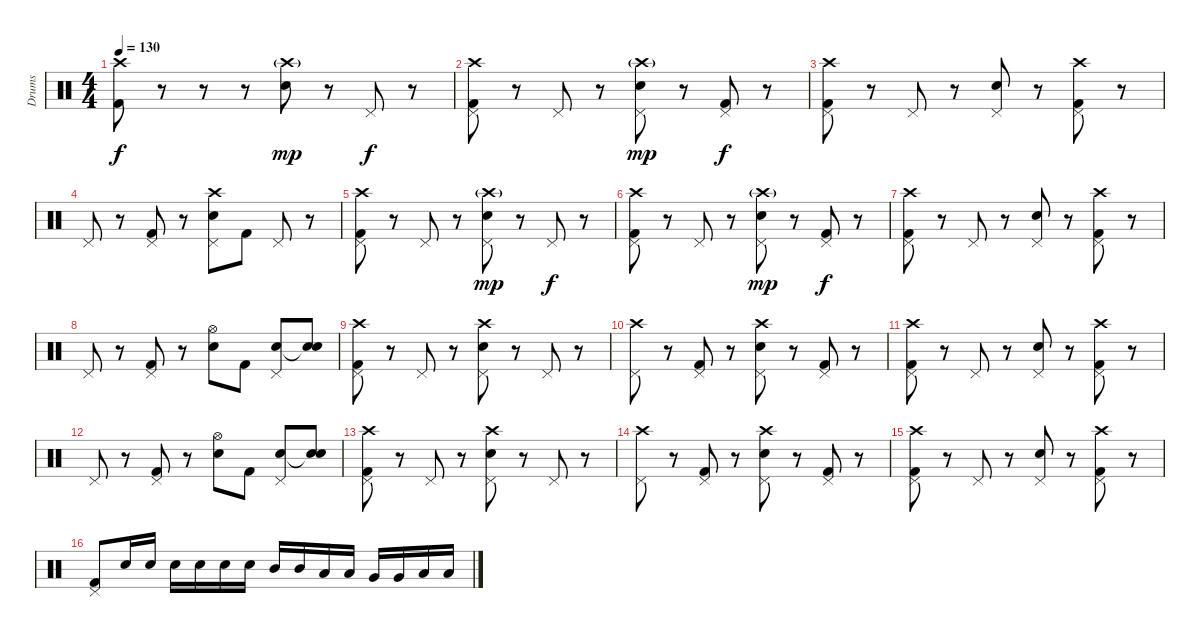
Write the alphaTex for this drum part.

\track ("Drums" "Drums") {instrument percussion}
\staff {score}
\articulation defaults
\ts (4 4)
\tempo 130
\clef neutral
\ks c
("Crash high (hit)" "Kick (hit) 2").8{dy f} r.8 r.8 r.8 ("Crash high (hit)"{g} "Snare (hit) 2").8{dy mp} r.8 "Pedal Hi-Hat (hit)".8{dy f} r.8 |
("Crash high (hit)" "Pedal Hi-Hat (hit)" "Kick (hit) 2").8 r.8 "Pedal Hi-Hat (hit)".8 r.8 ("Crash high (hit)"{g} "Snare (hit) 2" "Pedal Hi-Hat (hit)").8{dy mp} r.8 ("Pedal Hi-Hat (hit)" "Kick (hit) 2").8{dy f} r.8 |
("Crash high (hit)" "Pedal Hi-Hat (hit)" "Kick (hit) 2").8 r.8 "Pedal Hi-Hat (hit)".8 r.8 ("Snare (hit) 2" "Pedal Hi-Hat (hit)").8 r.8 ("Crash high (hit)" "Pedal Hi-Hat (hit)" "Kick (hit) 2").8 r.8 |
"Pedal Hi-Hat (hit)".8 r.8 ("Pedal Hi-Hat (hit)" "Kick (hit) 2").8 r.8 ("Crash high (hit)" "Snare (hit) 2" "Pedal Hi-Hat (hit)").8 "Kick (hit) 2".8 "Pedal Hi-Hat (hit)".8 r.8 |
("Crash high (hit)" "Pedal Hi-Hat (hit)" "Kick (hit) 2").8 r.8 "Pedal Hi-Hat (hit)".8 r.8 ("Crash high (hit)"{g} "Snare (hit) 2" "Pedal Hi-Hat (hit)").8{dy mp} r.8 "Pedal Hi-Hat (hit)".8{dy f} r.8 |
("Crash high (hit)" "Pedal Hi-Hat (hit)" "Kick (hit) 2").8 r.8 "Pedal Hi-Hat (hit)".8 r.8 ("Crash high (hit)"{g} "Snare (hit) 2" "Pedal Hi-Hat (hit)").8{dy mp} r.8 ("Pedal Hi-Hat (hit)" "Kick (hit) 2").8{dy f} r.8 |
("Crash high (hit)" "Pedal Hi-Hat (hit)" "Kick (hit) 2").8 r.8 "Pedal Hi-Hat (hit)".8 r.8 ("Snare (hit) 2" "Pedal Hi-Hat (hit)").8 r.8 ("Crash high (hit)" "Pedal Hi-Hat (hit)" "Kick (hit) 2").8 r.8 |
"Pedal Hi-Hat (hit)".8 r.8 ("Pedal Hi-Hat (hit)" "Kick (hit) 2").8 r.8 ("Hi-Hat (open)" "Snare (hit) 2").8 "Kick (hit) 2".8 ("Snare (hit) 2" "Pedal Hi-Hat (hit)").8 ("Snare (hit)"{t} "Snare (hit) 2").8 |
("Crash high (hit)" "Pedal Hi-Hat (hit)" "Kick (hit) 2").8 r.8 "Pedal Hi-Hat (hit)".8 r.8 ("Crash high (hit)" "Snare (hit) 2" "Pedal Hi-Hat (hit)").8 r.8 "Pedal Hi-Hat (hit)".8 r.8 |
("Crash high (hit)" "Pedal Hi-Hat (hit)").8 r.8 ("Pedal Hi-Hat (hit)" "Kick (hit) 2").8 r.8 ("Crash high (hit)" "Snare (hit) 2" "Pedal Hi-Hat (hit)").8 r.8 ("Pedal Hi-Hat (hit)" "Kick (hit) 2").8 r.8 |
("Crash high (hit)" "Pedal Hi-Hat (hit)" "Kick (hit) 2").8 r.8 "Pedal Hi-Hat (hit)".8 r.8 ("Snare (hit) 2" "Pedal Hi-Hat (hit)").8 r.8 ("Crash high (hit)" "Pedal Hi-Hat (hit)" "Kick (hit) 2").8 r.8 |
"Pedal Hi-Hat (hit)".8 r.8 ("Pedal Hi-Hat (hit)" "Kick (hit) 2").8 r.8 ("Hi-Hat (open)" "Snare (hit) 2").8 "Kick (hit) 2".8 ("Snare (hit) 2" "Pedal Hi-Hat (hit)").8 ("Snare (hit)"{t} "Snare (hit) 2").8 |
("Crash high (hit)" "Pedal Hi-Hat (hit)" "Kick (hit) 2").8 r.8 "Pedal Hi-Hat (hit)".8 r.8 ("Crash high (hit)" "Snare (hit) 2" "Pedal Hi-Hat (hit)").8 r.8 "Pedal Hi-Hat (hit)".8 r.8 |
("Crash high (hit)" "Pedal Hi-Hat (hit)").8 r.8 ("Pedal Hi-Hat (hit)" "Kick (hit) 2").8 r.8 ("Crash high (hit)" "Snare (hit) 2" "Pedal Hi-Hat (hit)").8 r.8 ("Pedal Hi-Hat (hit)" "Kick (hit) 2").8 r.8 |
("Crash high (hit)" "Pedal Hi-Hat (hit)" "Kick (hit) 2").8 r.8 "Pedal Hi-Hat (hit)".8 r.8 ("Snare (hit) 2" "Pedal Hi-Hat (hit)").8 r.8 ("Crash high (hit)" "Pedal Hi-Hat (hit)" "Kick (hit) 2").8 r.8 |
("Pedal Hi-Hat (hit)" "Kick (hit) 2").8 "Snare (hit) 2".16 "Snare (hit) 2".16 "Snare (hit) 2".16 "Snare (hit) 2".16 "Snare (hit) 2".16 "Snare (hit) 2".16 "Mid Tom (hit)".16 "Mid Tom (hit)".16 "Low Tom (hit)".16 "Low Tom (hit)".16 "Very Low Tom (hit)".16 "Very Low Tom (hit)".16 "Low Floor Tom (hit)".16 "Low Floor Tom (hit)".16
